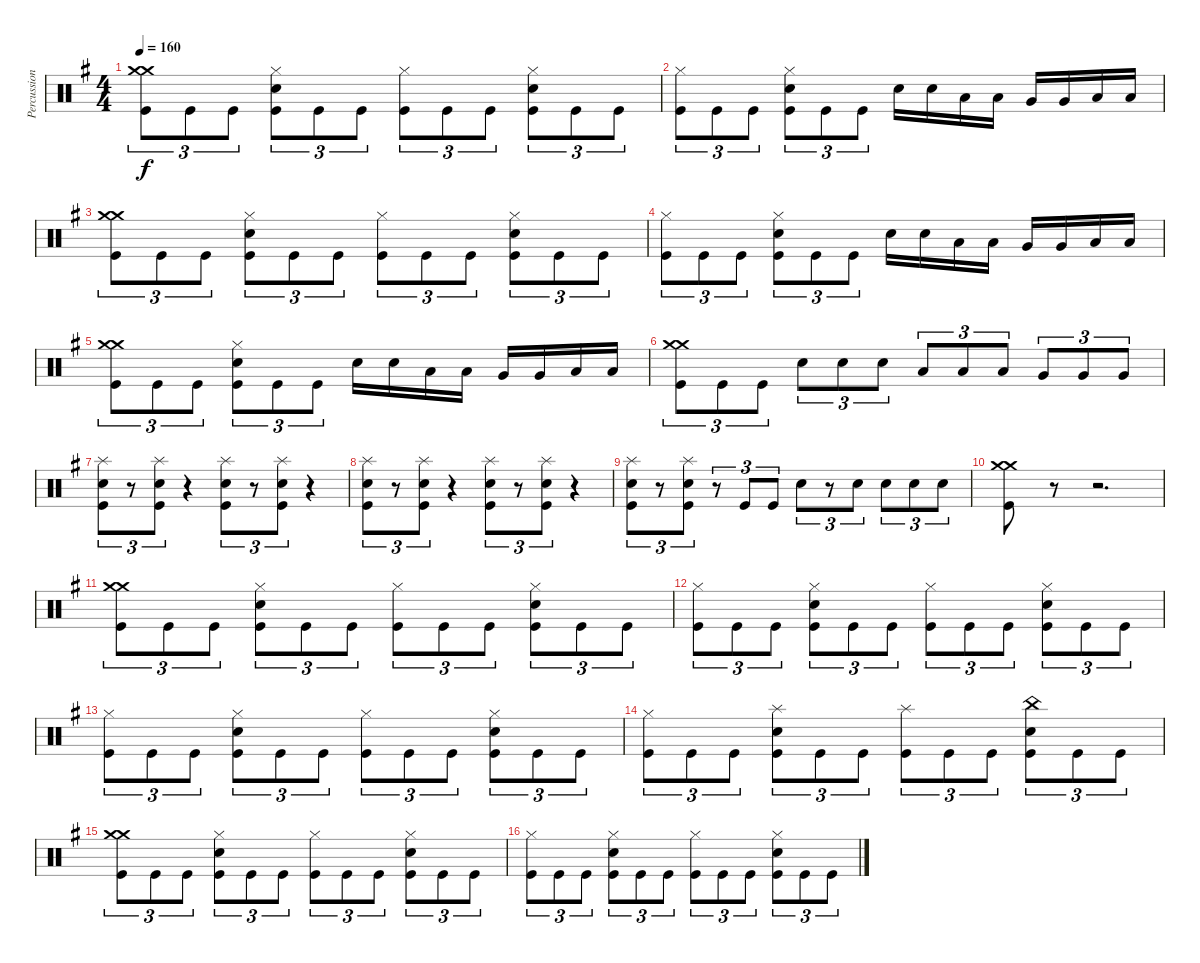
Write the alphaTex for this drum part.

\track ("Percussions" "Percussion") {instrument percussion}
\staff {score}
\articulation defaults
\ts (4 4)
\tempo 160
\clef neutral
\ks g
("Kick (hit)" "Crash medium (hit)" "Crash medium (hit)").8{tu (3 2) dy f} "Kick (hit)".8{tu (3 2)} "Kick (hit)".8{tu (3 2)} ("Kick (hit)" "Electric Snare (hit)" "Hi-Hat (closed)").8{tu (3 2)} "Kick (hit)".8{tu (3 2)} "Kick (hit)".8{tu (3 2)} ("Kick (hit)" "Hi-Hat (closed)").8{tu (3 2)} "Kick (hit)".8{tu (3 2)} "Kick (hit)".8{tu (3 2)} ("Kick (hit)" "Electric Snare (hit)" "Hi-Hat (closed)").8{tu (3 2)} "Kick (hit)".8{tu (3 2)} "Kick (hit)".8{tu (3 2)} |
("Kick (hit)" "Hi-Hat (closed)").8{tu (3 2)} "Kick (hit)".8{tu (3 2)} "Kick (hit)".8{tu (3 2)} ("Kick (hit)" "Electric Snare (hit)" "Hi-Hat (closed)").8{tu (3 2)} "Kick (hit)".8{tu (3 2)} "Kick (hit)".8{tu (3 2)} "Electric Snare (hit)".16 "Electric Snare (hit)".16 "Low Tom (hit)".16 "Low Tom (hit)".16 "Very Low Tom (hit)".16 "Very Low Tom (hit)".16 "Low Floor Tom (hit)".16 "Low Floor Tom (hit)".16 |
("Kick (hit)" "Crash medium (hit)" "Crash medium (hit)").8{tu (3 2)} "Kick (hit)".8{tu (3 2)} "Kick (hit)".8{tu (3 2)} ("Kick (hit)" "Electric Snare (hit)" "Hi-Hat (closed)").8{tu (3 2)} "Kick (hit)".8{tu (3 2)} "Kick (hit)".8{tu (3 2)} ("Kick (hit)" "Hi-Hat (closed)").8{tu (3 2)} "Kick (hit)".8{tu (3 2)} "Kick (hit)".8{tu (3 2)} ("Kick (hit)" "Electric Snare (hit)" "Hi-Hat (closed)").8{tu (3 2)} "Kick (hit)".8{tu (3 2)} "Kick (hit)".8{tu (3 2)} |
("Kick (hit)" "Hi-Hat (closed)").8{tu (3 2)} "Kick (hit)".8{tu (3 2)} "Kick (hit)".8{tu (3 2)} ("Kick (hit)" "Electric Snare (hit)" "Hi-Hat (closed)").8{tu (3 2)} "Kick (hit)".8{tu (3 2)} "Kick (hit)".8{tu (3 2)} "Electric Snare (hit)".16 "Electric Snare (hit)".16 "Low Tom (hit)".16 "Low Tom (hit)".16 "Very Low Tom (hit)".16 "Very Low Tom (hit)".16 "Low Floor Tom (hit)".16 "Low Floor Tom (hit)".16 |
("Kick (hit)" "Crash medium (hit)" "Crash medium (hit)").8{tu (3 2)} "Kick (hit)".8{tu (3 2)} "Kick (hit)".8{tu (3 2)} ("Kick (hit)" "Electric Snare (hit)" "Hi-Hat (closed)").8{tu (3 2)} "Kick (hit)".8{tu (3 2)} "Kick (hit)".8{tu (3 2)} "Electric Snare (hit)".16 "Electric Snare (hit)".16 "Low Tom (hit)".16 "Low Tom (hit)".16 "Very Low Tom (hit)".16 "Very Low Tom (hit)".16 "Low Floor Tom (hit)".16 "Low Floor Tom (hit)".16 |
("Kick (hit)" "Crash medium (hit)" "Crash medium (hit)").8{tu (3 2)} "Kick (hit)".8{tu (3 2)} "Kick (hit)".8{tu (3 2)} "Electric Snare (hit)".8{tu (3 2)} "Electric Snare (hit)".8{tu (3 2)} "Electric Snare (hit)".8{tu (3 2)} "Low Tom (hit)".8{tu (3 2)} "Low Tom (hit)".8{tu (3 2)} "Low Tom (hit)".8{tu (3 2)} "Very Low Tom (hit)".8{tu (3 2)} "Very Low Tom (hit)".8{tu (3 2)} "Very Low Tom (hit)".8{tu (3 2)} |
("Kick (hit)" "Electric Snare (hit)" "Splash (hit)").8{tu (3 2)} r.8{tu (3 2)} ("Kick (hit)" "Electric Snare (hit)" "Splash (hit)").8{tu (3 2)} r.4 ("Kick (hit)" "Electric Snare (hit)" "Splash (hit)").8{tu (3 2)} r.8{tu (3 2)} ("Kick (hit)" "Electric Snare (hit)" "Splash (hit)").8{tu (3 2)} r.4 |
("Kick (hit)" "Electric Snare (hit)" "Splash (hit)").8{tu (3 2)} r.8{tu (3 2)} ("Kick (hit)" "Electric Snare (hit)" "Splash (hit)").8{tu (3 2)} r.4 ("Kick (hit)" "Electric Snare (hit)" "Splash (hit)").8{tu (3 2)} r.8{tu (3 2)} ("Kick (hit)" "Electric Snare (hit)" "Splash (hit)").8{tu (3 2)} r.4 |
("Kick (hit)" "Electric Snare (hit)" "Splash (hit)").8{tu (3 2)} r.8{tu (3 2)} ("Kick (hit)" "Electric Snare (hit)" "Splash (hit)").8{tu (3 2)} r.8{tu (3 2)} "Kick (hit)".8{tu (3 2)} "Kick (hit)".8{tu (3 2)} "Electric Snare (hit)".8{tu (3 2)} r.8{tu (3 2)} "Electric Snare (hit)".8{tu (3 2)} "Electric Snare (hit)".8{tu (3 2)} "Electric Snare (hit)".8{tu (3 2)} "Electric Snare (hit)".8{tu (3 2)} |
("Kick (hit)" "Crash medium (hit)" "Crash medium (hit)").8 r.8 r.2{d} |
("Kick (hit)" "Crash medium (hit)" "Crash medium (hit)").8{tu (3 2)} "Kick (hit)".8{tu (3 2)} "Kick (hit)".8{tu (3 2)} ("Kick (hit)" "Electric Snare (hit)" "Hi-Hat (closed)").8{tu (3 2)} "Kick (hit)".8{tu (3 2)} "Kick (hit)".8{tu (3 2)} ("Kick (hit)" "Hi-Hat (closed)").8{tu (3 2)} "Kick (hit)".8{tu (3 2)} "Kick (hit)".8{tu (3 2)} ("Kick (hit)" "Electric Snare (hit)" "Hi-Hat (closed)").8{tu (3 2)} "Kick (hit)".8{tu (3 2)} "Kick (hit)".8{tu (3 2)} |
("Kick (hit)" "Hi-Hat (closed)").8{tu (3 2)} "Kick (hit)".8{tu (3 2)} "Kick (hit)".8{tu (3 2)} ("Kick (hit)" "Electric Snare (hit)" "Hi-Hat (closed)").8{tu (3 2)} "Kick (hit)".8{tu (3 2)} "Kick (hit)".8{tu (3 2)} ("Kick (hit)" "Hi-Hat (closed)").8{tu (3 2)} "Kick (hit)".8{tu (3 2)} "Kick (hit)".8{tu (3 2)} ("Kick (hit)" "Electric Snare (hit)" "Hi-Hat (closed)").8{tu (3 2)} "Kick (hit)".8{tu (3 2)} "Kick (hit)".8{tu (3 2)} |
("Kick (hit)" "Hi-Hat (closed)").8{tu (3 2)} "Kick (hit)".8{tu (3 2)} "Kick (hit)".8{tu (3 2)} ("Kick (hit)" "Electric Snare (hit)" "Hi-Hat (closed)").8{tu (3 2)} "Kick (hit)".8{tu (3 2)} "Kick (hit)".8{tu (3 2)} ("Kick (hit)" "Hi-Hat (closed)").8{tu (3 2)} "Kick (hit)".8{tu (3 2)} "Kick (hit)".8{tu (3 2)} ("Kick (hit)" "Electric Snare (hit)" "Hi-Hat (closed)").8{tu (3 2)} "Kick (hit)".8{tu (3 2)} "Kick (hit)".8{tu (3 2)} |
("Kick (hit)" "Hi-Hat (closed)").8{tu (3 2)} "Kick (hit)".8{tu (3 2)} "Kick (hit)".8{tu (3 2)} ("Kick (hit)" "Electric Snare (hit)" "Splash (hit)").8{tu (3 2)} "Kick (hit)".8{tu (3 2)} "Kick (hit)".8{tu (3 2)} ("Kick (hit)" "Splash (hit)").8{tu (3 2)} "Kick (hit)".8{tu (3 2)} "Kick (hit)".8{tu (3 2)} ("Kick (hit)" "Electric Snare (hit)" "China (hit)").8{tu (3 2)} "Kick (hit)".8{tu (3 2)} "Kick (hit)".8{tu (3 2)} |
("Kick (hit)" "Crash medium (hit)" "Crash medium (hit)").8{tu (3 2)} "Kick (hit)".8{tu (3 2)} "Kick (hit)".8{tu (3 2)} ("Kick (hit)" "Electric Snare (hit)" "Hi-Hat (closed)").8{tu (3 2)} "Kick (hit)".8{tu (3 2)} "Kick (hit)".8{tu (3 2)} ("Kick (hit)" "Hi-Hat (closed)").8{tu (3 2)} "Kick (hit)".8{tu (3 2)} "Kick (hit)".8{tu (3 2)} ("Kick (hit)" "Electric Snare (hit)" "Hi-Hat (closed)").8{tu (3 2)} "Kick (hit)".8{tu (3 2)} "Kick (hit)".8{tu (3 2)} |
("Kick (hit)" "Hi-Hat (closed)").8{tu (3 2)} "Kick (hit)".8{tu (3 2)} "Kick (hit)".8{tu (3 2)} ("Kick (hit)" "Electric Snare (hit)" "Hi-Hat (closed)").8{tu (3 2)} "Kick (hit)".8{tu (3 2)} "Kick (hit)".8{tu (3 2)} ("Kick (hit)" "Hi-Hat (closed)").8{tu (3 2)} "Kick (hit)".8{tu (3 2)} "Kick (hit)".8{tu (3 2)} ("Kick (hit)" "Electric Snare (hit)" "Hi-Hat (closed)").8{tu (3 2)} "Kick (hit)".8{tu (3 2)} "Kick (hit)".8{tu (3 2)}
